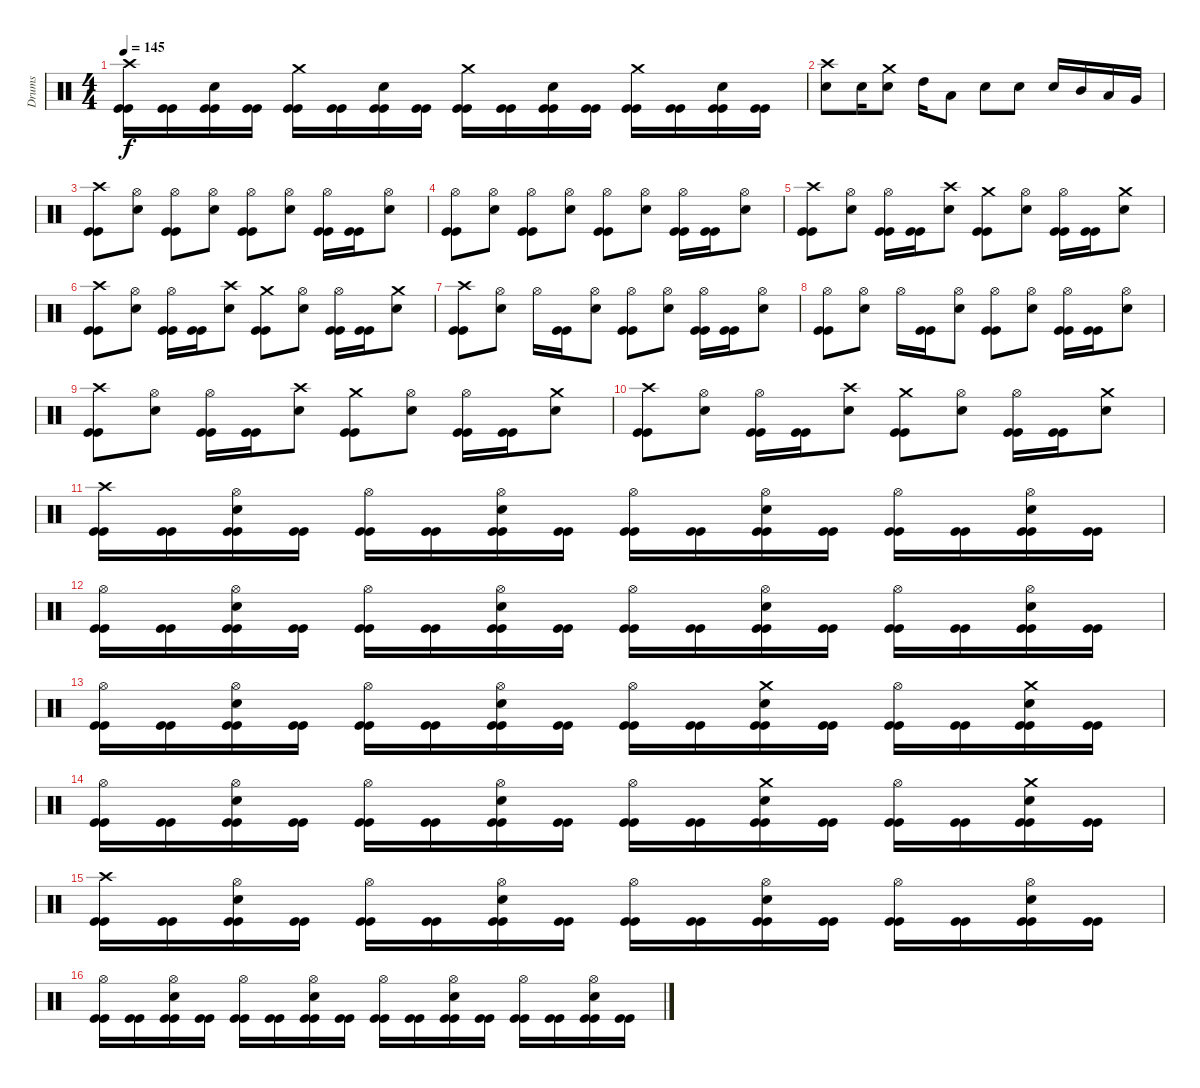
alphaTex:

\track ("Drums" "Drums") {instrument percussion}
\staff {score}
\articulation defaults
\ts (4 4)
\tempo 145
\clef neutral
\ks c
("Kick (hit)" "Kick (hit)" "Crash high (hit)").16{dy f} ("Kick (hit)" "Kick (hit)").16 ("Kick (hit)" "Kick (hit)" "Snare (hit) 2").16 ("Kick (hit)" "Kick (hit)").16 ("Kick (hit)" "Kick (hit)" "Crash medium (hit)").16 ("Kick (hit)" "Kick (hit)").16 ("Kick (hit)" "Kick (hit)" "Snare (hit) 2").16 ("Kick (hit)" "Kick (hit)").16 ("Kick (hit)" "Kick (hit)" "Crash medium (hit)").16 ("Kick (hit)" "Kick (hit)").16 ("Kick (hit)" "Kick (hit)" "Snare (hit) 2").16 ("Kick (hit)" "Kick (hit)").16 ("Kick (hit)" "Kick (hit)" "Crash medium (hit)").16 ("Kick (hit)" "Kick (hit)").16 ("Kick (hit)" "Kick (hit)" "Snare (hit) 2").16 ("Kick (hit)" "Kick (hit)").16 |
("Snare (hit) 2" "Crash high (hit)").8 "Snare (hit) 2".16 ("Snare (hit) 2" "Crash medium (hit)").8 "High Tom (hit)".16 "Low Tom (hit)".8 "Snare (hit) 2".8 "Snare (hit) 2".8 "Snare (hit) 2".16 "Mid Tom (hit)".16 "Low Tom (hit)".16 "Very Low Tom (hit)".16 |
("Kick (hit)" "Kick (hit)" "Crash high (hit)").8 ("Snare (hit) 2" "Hi-Hat (open)").8 ("Kick (hit)" "Kick (hit)" "Hi-Hat (open)").8 ("Snare (hit) 2" "Hi-Hat (open)").8 ("Kick (hit)" "Kick (hit)" "Hi-Hat (open)").8 ("Snare (hit) 2" "Hi-Hat (open)").8 ("Kick (hit)" "Kick (hit)" "Hi-Hat (open)").16 ("Kick (hit)" "Kick (hit)").16 ("Snare (hit) 2" "Hi-Hat (open)").8 |
("Kick (hit)" "Kick (hit)" "Hi-Hat (open)").8 ("Snare (hit) 2" "Hi-Hat (open)").8 ("Kick (hit)" "Kick (hit)" "Hi-Hat (open)").8 ("Snare (hit) 2" "Hi-Hat (open)").8 ("Kick (hit)" "Kick (hit)" "Hi-Hat (open)").8 ("Snare (hit) 2" "Hi-Hat (open)").8 ("Kick (hit)" "Kick (hit)" "Hi-Hat (open)").16 ("Kick (hit)" "Kick (hit)").16 ("Snare (hit) 2" "Hi-Hat (open)").8 |
("Kick (hit)" "Kick (hit)" "Crash high (hit)").8 ("Snare (hit) 2" "Hi-Hat (open)").8 ("Kick (hit)" "Kick (hit)" "Hi-Hat (open)").16 ("Kick (hit)" "Kick (hit)").16 ("Snare (hit) 2" "Crash high (hit)").8 ("Kick (hit)" "Kick (hit)" "Crash medium (hit)").8 ("Snare (hit) 2" "Hi-Hat (open)").8 ("Kick (hit)" "Kick (hit)" "Hi-Hat (open)").16 ("Kick (hit)" "Kick (hit)").16 ("Snare (hit) 2" "Crash medium (hit)").8 |
("Kick (hit)" "Kick (hit)" "Crash high (hit)").8 ("Snare (hit) 2" "Hi-Hat (open)").8 ("Kick (hit)" "Kick (hit)" "Hi-Hat (open)").16 ("Kick (hit)" "Kick (hit)").16 ("Snare (hit) 2" "Crash high (hit)").8 ("Kick (hit)" "Kick (hit)" "Crash medium (hit)").8 ("Snare (hit) 2" "Hi-Hat (open)").8 ("Kick (hit)" "Kick (hit)" "Hi-Hat (open)").16 ("Kick (hit)" "Kick (hit)").16 ("Snare (hit) 2" "Crash medium (hit)").8 |
("Kick (hit)" "Kick (hit)" "Crash high (hit)").8 ("Snare (hit) 2" "Hi-Hat (open)").8 "Hi-Hat (open)".16 ("Kick (hit)" "Kick (hit)").16 ("Snare (hit) 2" "Hi-Hat (open)").8 ("Kick (hit)" "Kick (hit)" "Hi-Hat (open)").8 ("Snare (hit) 2" "Hi-Hat (open)").8 ("Kick (hit)" "Kick (hit)" "Hi-Hat (open)").16 ("Kick (hit)" "Kick (hit)").16 ("Snare (hit) 2" "Hi-Hat (open)").8 |
("Kick (hit)" "Kick (hit)" "Hi-Hat (open)").8 ("Snare (hit) 2" "Hi-Hat (open)").8 "Hi-Hat (open)".16 ("Kick (hit)" "Kick (hit)").16 ("Snare (hit) 2" "Hi-Hat (open)").8 ("Kick (hit)" "Kick (hit)" "Hi-Hat (open)").8 ("Snare (hit) 2" "Hi-Hat (open)").8 ("Kick (hit)" "Kick (hit)" "Hi-Hat (open)").16 ("Kick (hit)" "Kick (hit)").16 ("Snare (hit) 2" "Hi-Hat (open)").8 |
("Kick (hit)" "Kick (hit)" "Crash high (hit)").8 ("Snare (hit) 2" "Hi-Hat (open)").8 ("Kick (hit)" "Kick (hit)" "Hi-Hat (open)").16 ("Kick (hit)" "Kick (hit)").16 ("Snare (hit) 2" "Crash high (hit)").8 ("Kick (hit)" "Kick (hit)" "Crash medium (hit)").8 ("Snare (hit) 2" "Hi-Hat (open)").8 ("Kick (hit)" "Kick (hit)" "Hi-Hat (open)").16 ("Kick (hit)" "Kick (hit)").16 ("Snare (hit) 2" "Crash medium (hit)").8 |
("Kick (hit)" "Kick (hit)" "Crash high (hit)").8 ("Snare (hit) 2" "Hi-Hat (open)").8 ("Kick (hit)" "Kick (hit)" "Hi-Hat (open)").16 ("Kick (hit)" "Kick (hit)").16 ("Snare (hit) 2" "Crash high (hit)").8 ("Kick (hit)" "Kick (hit)" "Crash medium (hit)").8 ("Snare (hit) 2" "Hi-Hat (open)").8 ("Kick (hit)" "Kick (hit)" "Hi-Hat (open)").16 ("Kick (hit)" "Kick (hit)").16 ("Snare (hit) 2" "Crash medium (hit)").8 |
("Kick (hit)" "Kick (hit)" "Crash high (hit)").16 ("Kick (hit)" "Kick (hit)").16 ("Kick (hit)" "Kick (hit)" "Snare (hit) 2" "Hi-Hat (open)").16 ("Kick (hit)" "Kick (hit)").16 ("Kick (hit)" "Kick (hit)" "Hi-Hat (open)").16 ("Kick (hit)" "Kick (hit)").16 ("Kick (hit)" "Kick (hit)" "Snare (hit) 2" "Hi-Hat (open)").16 ("Kick (hit)" "Kick (hit)").16 ("Kick (hit)" "Kick (hit)" "Hi-Hat (open)").16 ("Kick (hit)" "Kick (hit)").16 ("Kick (hit)" "Kick (hit)" "Snare (hit) 2" "Hi-Hat (open)").16 ("Kick (hit)" "Kick (hit)").16 ("Kick (hit)" "Kick (hit)" "Hi-Hat (open)").16 ("Kick (hit)" "Kick (hit)").16 ("Kick (hit)" "Kick (hit)" "Snare (hit) 2" "Hi-Hat (open)").16 ("Kick (hit)" "Kick (hit)").16 |
("Kick (hit)" "Kick (hit)" "Hi-Hat (open)").16 ("Kick (hit)" "Kick (hit)").16 ("Kick (hit)" "Kick (hit)" "Snare (hit) 2" "Hi-Hat (open)").16 ("Kick (hit)" "Kick (hit)").16 ("Kick (hit)" "Kick (hit)" "Hi-Hat (open)").16 ("Kick (hit)" "Kick (hit)").16 ("Kick (hit)" "Kick (hit)" "Snare (hit) 2" "Hi-Hat (open)").16 ("Kick (hit)" "Kick (hit)").16 ("Kick (hit)" "Kick (hit)" "Hi-Hat (open)").16 ("Kick (hit)" "Kick (hit)").16 ("Kick (hit)" "Kick (hit)" "Snare (hit) 2" "Hi-Hat (open)").16 ("Kick (hit)" "Kick (hit)").16 ("Kick (hit)" "Kick (hit)" "Hi-Hat (open)").16 ("Kick (hit)" "Kick (hit)").16 ("Kick (hit)" "Kick (hit)" "Snare (hit) 2" "Hi-Hat (open)").16 ("Kick (hit)" "Kick (hit)").16 |
("Kick (hit)" "Kick (hit)" "Hi-Hat (open)").16 ("Kick (hit)" "Kick (hit)").16 ("Kick (hit)" "Kick (hit)" "Snare (hit) 2" "Hi-Hat (open)").16 ("Kick (hit)" "Kick (hit)").16 ("Kick (hit)" "Kick (hit)" "Hi-Hat (open)").16 ("Kick (hit)" "Kick (hit)").16 ("Kick (hit)" "Kick (hit)" "Snare (hit) 2" "Hi-Hat (open)").16 ("Kick (hit)" "Kick (hit)").16 ("Kick (hit)" "Kick (hit)" "Hi-Hat (open)").16 ("Kick (hit)" "Kick (hit)").16 ("Kick (hit)" "Kick (hit)" "Snare (hit) 2" "Crash medium (hit)").16 ("Kick (hit)" "Kick (hit)").16 ("Kick (hit)" "Kick (hit)" "Hi-Hat (open)").16 ("Kick (hit)" "Kick (hit)").16 ("Kick (hit)" "Kick (hit)" "Snare (hit) 2" "Crash medium (hit)").16 ("Kick (hit)" "Kick (hit)").16 |
("Kick (hit)" "Kick (hit)" "Hi-Hat (open)").16 ("Kick (hit)" "Kick (hit)").16 ("Kick (hit)" "Kick (hit)" "Snare (hit) 2" "Hi-Hat (open)").16 ("Kick (hit)" "Kick (hit)").16 ("Kick (hit)" "Kick (hit)" "Hi-Hat (open)").16 ("Kick (hit)" "Kick (hit)").16 ("Kick (hit)" "Kick (hit)" "Snare (hit) 2" "Hi-Hat (open)").16 ("Kick (hit)" "Kick (hit)").16 ("Kick (hit)" "Kick (hit)" "Hi-Hat (open)").16 ("Kick (hit)" "Kick (hit)").16 ("Kick (hit)" "Kick (hit)" "Snare (hit) 2" "Crash medium (hit)").16 ("Kick (hit)" "Kick (hit)").16 ("Kick (hit)" "Kick (hit)" "Hi-Hat (open)").16 ("Kick (hit)" "Kick (hit)").16 ("Kick (hit)" "Kick (hit)" "Snare (hit) 2" "Crash medium (hit)").16 ("Kick (hit)" "Kick (hit)").16 |
("Kick (hit)" "Kick (hit)" "Crash high (hit)").16 ("Kick (hit)" "Kick (hit)").16 ("Kick (hit)" "Kick (hit)" "Snare (hit) 2" "Hi-Hat (open)").16 ("Kick (hit)" "Kick (hit)").16 ("Kick (hit)" "Kick (hit)" "Hi-Hat (open)").16 ("Kick (hit)" "Kick (hit)").16 ("Kick (hit)" "Kick (hit)" "Snare (hit) 2" "Hi-Hat (open)").16 ("Kick (hit)" "Kick (hit)").16 ("Kick (hit)" "Kick (hit)" "Hi-Hat (open)").16 ("Kick (hit)" "Kick (hit)").16 ("Kick (hit)" "Kick (hit)" "Snare (hit) 2" "Hi-Hat (open)").16 ("Kick (hit)" "Kick (hit)").16 ("Kick (hit)" "Kick (hit)" "Hi-Hat (open)").16 ("Kick (hit)" "Kick (hit)").16 ("Kick (hit)" "Kick (hit)" "Snare (hit) 2" "Hi-Hat (open)").16 ("Kick (hit)" "Kick (hit)").16 |
("Kick (hit)" "Kick (hit)" "Hi-Hat (open)").16 ("Kick (hit)" "Kick (hit)").16 ("Kick (hit)" "Kick (hit)" "Snare (hit) 2" "Hi-Hat (open)").16 ("Kick (hit)" "Kick (hit)").16 ("Kick (hit)" "Kick (hit)" "Hi-Hat (open)").16 ("Kick (hit)" "Kick (hit)").16 ("Kick (hit)" "Kick (hit)" "Snare (hit) 2" "Hi-Hat (open)").16 ("Kick (hit)" "Kick (hit)").16 ("Kick (hit)" "Kick (hit)" "Hi-Hat (open)").16 ("Kick (hit)" "Kick (hit)").16 ("Kick (hit)" "Kick (hit)" "Snare (hit) 2" "Hi-Hat (open)").16 ("Kick (hit)" "Kick (hit)").16 ("Kick (hit)" "Kick (hit)" "Hi-Hat (open)").16 ("Kick (hit)" "Kick (hit)").16 ("Kick (hit)" "Kick (hit)" "Snare (hit) 2" "Hi-Hat (open)").16 ("Kick (hit)" "Kick (hit)").16
